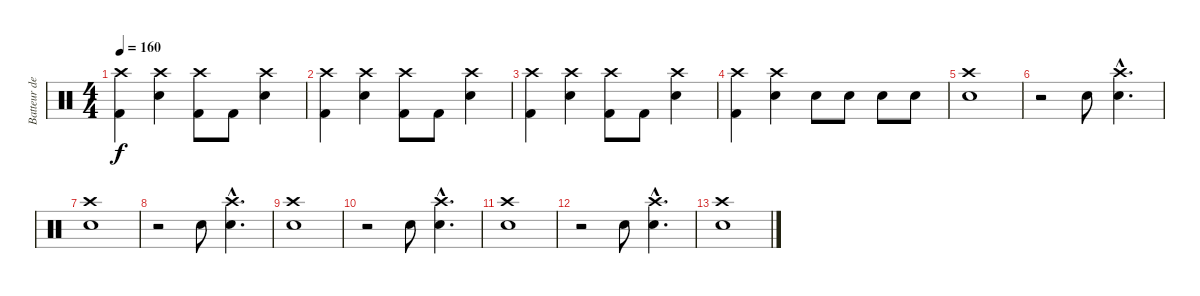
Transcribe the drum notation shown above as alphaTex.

\track ("Batteur de G.C" "Batteur de") {instrument percussion}
\staff {score}
\articulation defaults
\ts (4 4)
\tempo 160
\clef neutral
\ks c
("Crash high (hit)" "Kick (hit) 2").4{dy f} ("Crash high (hit)" "Electric Snare (hit)").4 ("Crash high (hit)" "Kick (hit) 2").8 "Kick (hit) 2".8 ("Crash high (hit)" "Electric Snare (hit)").4 |
("Crash high (hit)" "Kick (hit) 2").4 ("Crash high (hit)" "Electric Snare (hit)").4 ("Crash high (hit)" "Kick (hit) 2").8 "Kick (hit) 2".8 ("Crash high (hit)" "Electric Snare (hit)").4 |
("Crash high (hit)" "Kick (hit) 2").4 ("Crash high (hit)" "Electric Snare (hit)").4 ("Crash high (hit)" "Kick (hit) 2").8 "Kick (hit) 2".8 ("Crash high (hit)" "Electric Snare (hit)").4 |
("Crash high (hit)" "Kick (hit) 2").4 ("Crash high (hit)" "Electric Snare (hit)").4 "Electric Snare (hit)".8 "Electric Snare (hit)".8 "Electric Snare (hit)".8 "Electric Snare (hit)".8 |
("Crash high (hit)" "Electric Snare (hit)").1 |
r.2 "Electric Snare (hit)".8 ("Crash high (hit)"{hac} "Electric Snare (hit)"{hac}).4{d} |
("Crash high (hit)" "Electric Snare (hit)").1 |
r.2 "Electric Snare (hit)".8 ("Crash high (hit)"{hac} "Electric Snare (hit)"{hac}).4{d} |
("Crash high (hit)" "Electric Snare (hit)").1 |
r.2 "Electric Snare (hit)".8 ("Crash high (hit)"{hac} "Electric Snare (hit)"{hac}).4{d} |
("Crash high (hit)" "Electric Snare (hit)").1 |
r.2 "Electric Snare (hit)".8 ("Crash high (hit)"{hac} "Electric Snare (hit)"{hac}).4{d} |
("Crash high (hit)" "Electric Snare (hit)").1
